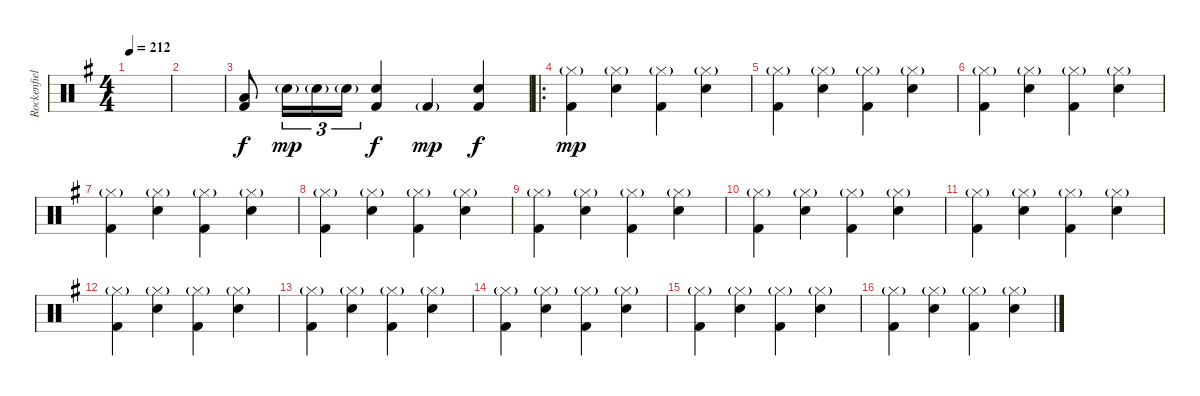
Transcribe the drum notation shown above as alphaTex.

\track ("Rockenfield" "Rockenfiel") {instrument percussion}
\staff {score}
\articulation defaults
\ts (4 4)
\tempo 212
\clef neutral
\ks g
|
|
("Low Floor Tom (hit)" "Kick (hit) 2").8 "Electric Snare (hit)"{g}.16{tu (3 2) dy mp} "Electric Snare (hit)"{g}.16{tu (3 2)} "Electric Snare (hit)"{g}.16{tu (3 2)} ("Electric Snare (hit)" "Kick (hit) 2").4{dy f} "Kick (hit) 2"{g}.4{dy mp} ("Electric Snare (hit)" "Kick (hit) 2").4{dy f} |
\ro
("Hi-Hat (closed)"{g} "Kick (hit) 2").4{dy mp} ("Hi-Hat (closed)"{g} "Electric Snare (hit)").4 ("Hi-Hat (closed)"{g} "Kick (hit) 2").4 ("Hi-Hat (closed)"{g} "Electric Snare (hit)").4 |
("Hi-Hat (closed)"{g} "Kick (hit) 2").4 ("Hi-Hat (closed)"{g} "Electric Snare (hit)").4 ("Hi-Hat (closed)"{g} "Kick (hit) 2").4 ("Hi-Hat (closed)"{g} "Electric Snare (hit)").4 |
("Hi-Hat (closed)"{g} "Kick (hit) 2").4 ("Hi-Hat (closed)"{g} "Electric Snare (hit)").4 ("Hi-Hat (closed)"{g} "Kick (hit) 2").4 ("Hi-Hat (closed)"{g} "Electric Snare (hit)").4 |
("Hi-Hat (closed)"{g} "Kick (hit) 2").4 ("Hi-Hat (closed)"{g} "Electric Snare (hit)").4 ("Hi-Hat (closed)"{g} "Kick (hit) 2").4 ("Hi-Hat (closed)"{g} "Electric Snare (hit)").4 |
("Hi-Hat (closed)"{g} "Kick (hit) 2").4 ("Hi-Hat (closed)"{g} "Electric Snare (hit)").4 ("Hi-Hat (closed)"{g} "Kick (hit) 2").4 ("Hi-Hat (closed)"{g} "Electric Snare (hit)").4 |
("Hi-Hat (closed)"{g} "Kick (hit) 2").4 ("Hi-Hat (closed)"{g} "Electric Snare (hit)").4 ("Hi-Hat (closed)"{g} "Kick (hit) 2").4 ("Hi-Hat (closed)"{g} "Electric Snare (hit)").4 |
("Hi-Hat (closed)"{g} "Kick (hit) 2").4 ("Hi-Hat (closed)"{g} "Electric Snare (hit)").4 ("Hi-Hat (closed)"{g} "Kick (hit) 2").4 ("Hi-Hat (closed)"{g} "Electric Snare (hit)").4 |
("Hi-Hat (closed)"{g} "Kick (hit) 2").4 ("Hi-Hat (closed)"{g} "Electric Snare (hit)").4 ("Hi-Hat (closed)"{g} "Kick (hit) 2").4 ("Hi-Hat (closed)"{g} "Electric Snare (hit)").4 |
("Hi-Hat (closed)"{g} "Kick (hit) 2").4 ("Hi-Hat (closed)"{g} "Electric Snare (hit)").4 ("Hi-Hat (closed)"{g} "Kick (hit) 2").4 ("Hi-Hat (closed)"{g} "Electric Snare (hit)").4 |
("Hi-Hat (closed)"{g} "Kick (hit) 2").4 ("Hi-Hat (closed)"{g} "Electric Snare (hit)").4 ("Hi-Hat (closed)"{g} "Kick (hit) 2").4 ("Hi-Hat (closed)"{g} "Electric Snare (hit)").4 |
("Hi-Hat (closed)"{g} "Kick (hit) 2").4 ("Hi-Hat (closed)"{g} "Electric Snare (hit)").4 ("Hi-Hat (closed)"{g} "Kick (hit) 2").4 ("Hi-Hat (closed)"{g} "Electric Snare (hit)").4 |
("Hi-Hat (closed)"{g} "Kick (hit) 2").4 ("Hi-Hat (closed)"{g} "Electric Snare (hit)").4 ("Hi-Hat (closed)"{g} "Kick (hit) 2").4 ("Hi-Hat (closed)"{g} "Electric Snare (hit)").4 |
("Hi-Hat (closed)"{g} "Kick (hit) 2").4 ("Hi-Hat (closed)"{g} "Electric Snare (hit)").4 ("Hi-Hat (closed)"{g} "Kick (hit) 2").4 ("Hi-Hat (closed)"{g} "Electric Snare (hit)").4
